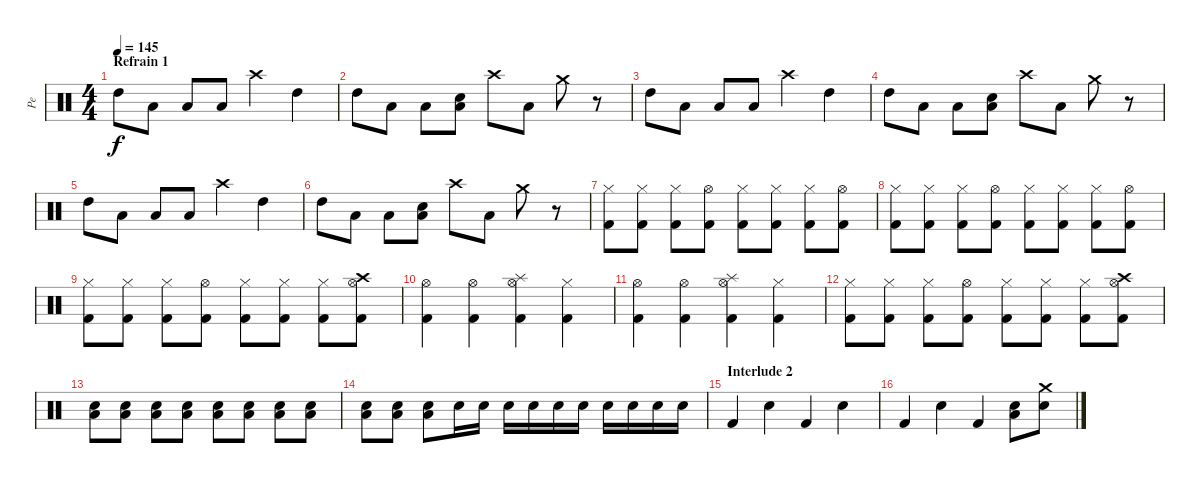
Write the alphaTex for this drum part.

\track ("Pe" "Pe") {instrument percussion}
\staff {score}
\articulation defaults
\ts (4 4)
\section ("" "Refrain 1")
\tempo 145
\clef neutral
\ks c "High Tom (hit)".8{dy f} "Low Floor Tom (hit)".8 "Low Floor Tom (hit)".8 "Low Floor Tom (hit)".8 "Crash high (hit)".4 "High Tom (hit)".4
|
"High Tom (hit)".8 "Low Floor Tom (hit)".8 "Low Floor Tom (hit)".8 ("Electric Snare (hit)" "Low Floor Tom (hit)").8 "Crash high (hit)".8 "Low Floor Tom (hit)".8 "Crash medium (hit)".8 r.8 |
"High Tom (hit)".8 "Low Floor Tom (hit)".8 "Low Floor Tom (hit)".8 "Low Floor Tom (hit)".8 "Crash high (hit)".4 "High Tom (hit)".4 |
"High Tom (hit)".8 "Low Floor Tom (hit)".8 "Low Floor Tom (hit)".8 ("Electric Snare (hit)" "Low Floor Tom (hit)").8 "Crash high (hit)".8 "Low Floor Tom (hit)".8 "Crash medium (hit)".8 r.8 |
"High Tom (hit)".8 "Low Floor Tom (hit)".8 "Low Floor Tom (hit)".8 "Low Floor Tom (hit)".8 "Crash high (hit)".4 "High Tom (hit)".4 |
"High Tom (hit)".8 "Low Floor Tom (hit)".8 "Low Floor Tom (hit)".8 ("Electric Snare (hit)" "Low Floor Tom (hit)").8 "Crash high (hit)".8 "Low Floor Tom (hit)".8 "Crash medium (hit)".8 r.8 |
("Hi-Hat (closed)" "Kick (hit) 2").8 ("Hi-Hat (closed)" "Kick (hit) 2").8 ("Hi-Hat (closed)" "Kick (hit) 2").8 ("Hi-Hat (open)" "Kick (hit) 2").8 ("Hi-Hat (closed)" "Kick (hit) 2").8 ("Hi-Hat (closed)" "Kick (hit) 2").8 ("Hi-Hat (closed)" "Kick (hit) 2").8 ("Hi-Hat (open)" "Kick (hit) 2").8 |
("Hi-Hat (closed)" "Kick (hit) 2").8 ("Hi-Hat (closed)" "Kick (hit) 2").8 ("Hi-Hat (closed)" "Kick (hit) 2").8 ("Hi-Hat (open)" "Kick (hit) 2").8 ("Hi-Hat (closed)" "Kick (hit) 2").8 ("Hi-Hat (closed)" "Kick (hit) 2").8 ("Hi-Hat (closed)" "Kick (hit) 2").8 ("Hi-Hat (open)" "Kick (hit) 2").8 |
("Hi-Hat (closed)" "Kick (hit) 2").8 ("Hi-Hat (closed)" "Kick (hit) 2").8 ("Hi-Hat (closed)" "Kick (hit) 2").8 ("Hi-Hat (open)" "Kick (hit) 2").8 ("Hi-Hat (closed)" "Kick (hit) 2").8 ("Hi-Hat (closed)" "Kick (hit) 2").8 ("Hi-Hat (closed)" "Kick (hit) 2").8 ("Crash high (hit)" "Hi-Hat (open)" "Kick (hit) 2").8 |
("Hi-Hat (open)" "Kick (hit) 2").4 ("Hi-Hat (open)" "Kick (hit) 2").4 ("Splash (hit)" "Hi-Hat (open)" "Kick (hit) 2").4 ("Hi-Hat (closed)" "Kick (hit) 2").4 |
("Hi-Hat (open)" "Kick (hit) 2").4 ("Hi-Hat (open)" "Kick (hit) 2").4 ("Splash (hit)" "Hi-Hat (open)" "Kick (hit) 2").4 ("Hi-Hat (closed)" "Kick (hit) 2").4 |
("Hi-Hat (closed)" "Kick (hit) 2").8 ("Hi-Hat (closed)" "Kick (hit) 2").8 ("Hi-Hat (closed)" "Kick (hit) 2").8 ("Hi-Hat (open)" "Kick (hit) 2").8 ("Hi-Hat (closed)" "Kick (hit) 2").8 ("Hi-Hat (closed)" "Kick (hit) 2").8 ("Hi-Hat (closed)" "Kick (hit) 2").8 ("Crash high (hit)" "Hi-Hat (open)" "Kick (hit) 2").8 |
("Low Tom (hit)" "Electric Snare (hit)").8 ("Low Tom (hit)" "Electric Snare (hit)").8 ("Low Tom (hit)" "Electric Snare (hit)").8 ("Low Tom (hit)" "Electric Snare (hit)").8 ("Low Tom (hit)" "Electric Snare (hit)").8 ("Low Tom (hit)" "Electric Snare (hit)").8 ("Low Tom (hit)" "Electric Snare (hit)").8 ("Low Tom (hit)" "Electric Snare (hit)").8 |
("Low Tom (hit)" "Electric Snare (hit)").8 ("Low Tom (hit)" "Electric Snare (hit)").8 ("Low Tom (hit)" "Electric Snare (hit)").8 "Electric Snare (hit)".16 "Electric Snare (hit)".16 "Electric Snare (hit)".16 "Electric Snare (hit)".16 "Electric Snare (hit)".16 "Electric Snare (hit)".16 "Electric Snare (hit)".16 "Electric Snare (hit)".16 "Electric Snare (hit)".16 "Electric Snare (hit)".16 |
\section ("" "Interlude 2")
"Kick (hit) 2".4 "Snare (hit) 2".4 "Kick (hit) 2".4 "Snare (hit) 2".4 |
"Kick (hit) 2".4 "Snare (hit) 2".4 "Kick (hit) 2".4 ("Snare (hit) 2" "Low Floor Tom (hit)").8 ("Crash medium (hit)" "Snare (hit) 2").8
